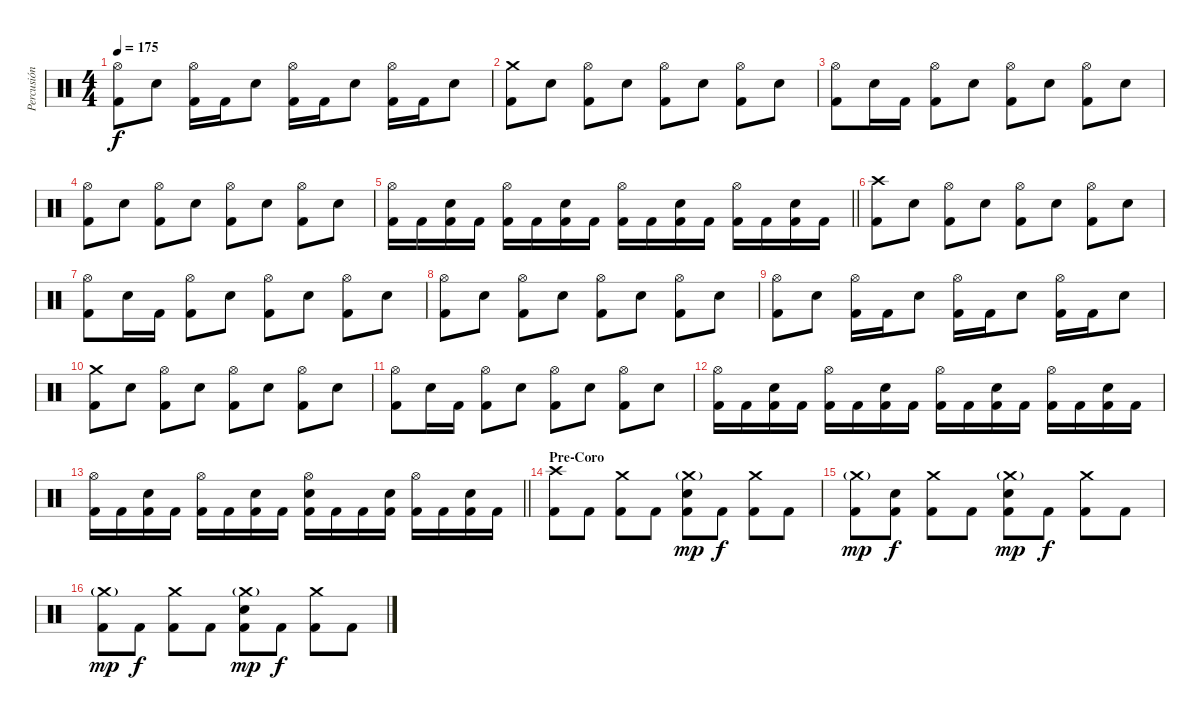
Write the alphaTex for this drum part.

\track ("Percusión" "Percusión") {instrument percussion}
\staff {score}
\articulation defaults
\ts (4 4)
\tempo 175
\clef neutral
\ks c
("Hi-Hat (open)" "Kick (hit) 2").8{dy f} "Snare (hit) 2".8 ("Hi-Hat (open)" "Kick (hit) 2").16 "Kick (hit) 2".16 "Snare (hit) 2".8 ("Hi-Hat (open)" "Kick (hit) 2").16 "Kick (hit) 2".16 "Snare (hit) 2".8 ("Hi-Hat (open)" "Kick (hit) 2").16 "Kick (hit) 2".16 "Snare (hit) 2".8 |
("Crash medium (hit)" "Kick (hit) 2").8 "Snare (hit) 2".8 ("Hi-Hat (open)" "Kick (hit) 2").8 "Snare (hit) 2".8 ("Hi-Hat (open)" "Kick (hit) 2").8 "Snare (hit) 2".8 ("Hi-Hat (open)" "Kick (hit) 2").8 "Snare (hit) 2".8 |
("Hi-Hat (open)" "Kick (hit) 2").8 "Snare (hit) 2".16 "Kick (hit) 2".16 ("Hi-Hat (open)" "Kick (hit) 2").8 "Snare (hit) 2".8 ("Hi-Hat (open)" "Kick (hit) 2").8 "Snare (hit) 2".8 ("Hi-Hat (open)" "Kick (hit) 2").8 "Snare (hit) 2".8 |
("Hi-Hat (open)" "Kick (hit) 2").8 "Snare (hit) 2".8 ("Hi-Hat (open)" "Kick (hit) 2").8 "Snare (hit) 2".8 ("Hi-Hat (open)" "Kick (hit) 2").8 "Snare (hit) 2".8 ("Hi-Hat (open)" "Kick (hit) 2").8 "Snare (hit) 2".8 |
\barLineRight lightlight
("Hi-Hat (open)" "Kick (hit) 2").16 "Kick (hit) 2".16 ("Snare (hit) 2" "Kick (hit) 2").16 "Kick (hit) 2".16 ("Hi-Hat (open)" "Kick (hit) 2").16 "Kick (hit) 2".16 ("Snare (hit) 2" "Kick (hit) 2").16 "Kick (hit) 2".16 ("Hi-Hat (open)" "Kick (hit) 2").16 "Kick (hit) 2".16 ("Snare (hit) 2" "Kick (hit) 2").16 "Kick (hit) 2".16 ("Hi-Hat (open)" "Kick (hit) 2").16 "Kick (hit) 2".16 ("Snare (hit) 2" "Kick (hit) 2").16 "Kick (hit) 2".16 |
\section ("" "")
("Crash high (hit)" "Kick (hit) 2").8 "Snare (hit) 2".8 ("Hi-Hat (open)" "Kick (hit) 2").8 "Snare (hit) 2".8 ("Hi-Hat (open)" "Kick (hit) 2").8 "Snare (hit) 2".8 ("Hi-Hat (open)" "Kick (hit) 2").8 "Snare (hit) 2".8 |
("Hi-Hat (open)" "Kick (hit) 2").8 "Snare (hit) 2".16 "Kick (hit) 2".16 ("Hi-Hat (open)" "Kick (hit) 2").8 "Snare (hit) 2".8 ("Hi-Hat (open)" "Kick (hit) 2").8 "Snare (hit) 2".8 ("Hi-Hat (open)" "Kick (hit) 2").8 "Snare (hit) 2".8 |
("Hi-Hat (open)" "Kick (hit) 2").8 "Snare (hit) 2".8 ("Hi-Hat (open)" "Kick (hit) 2").8 "Snare (hit) 2".8 ("Hi-Hat (open)" "Kick (hit) 2").8 "Snare (hit) 2".8 ("Hi-Hat (open)" "Kick (hit) 2").8 "Snare (hit) 2".8 |
("Hi-Hat (open)" "Kick (hit) 2").8 "Snare (hit) 2".8 ("Hi-Hat (open)" "Kick (hit) 2").16 "Kick (hit) 2".16 "Snare (hit) 2".8 ("Hi-Hat (open)" "Kick (hit) 2").16 "Kick (hit) 2".16 "Snare (hit) 2".8 ("Hi-Hat (open)" "Kick (hit) 2").16 "Kick (hit) 2".16 "Snare (hit) 2".8 |
("Crash medium (hit)" "Kick (hit) 2").8 "Snare (hit) 2".8 ("Hi-Hat (open)" "Kick (hit) 2").8 "Snare (hit) 2".8 ("Hi-Hat (open)" "Kick (hit) 2").8 "Snare (hit) 2".8 ("Hi-Hat (open)" "Kick (hit) 2").8 "Snare (hit) 2".8 |
("Hi-Hat (open)" "Kick (hit) 2").8 "Snare (hit) 2".16 "Kick (hit) 2".16 ("Hi-Hat (open)" "Kick (hit) 2").8 "Snare (hit) 2".8 ("Hi-Hat (open)" "Kick (hit) 2").8 "Snare (hit) 2".8 ("Hi-Hat (open)" "Kick (hit) 2").8 "Snare (hit) 2".8 |
("Hi-Hat (open)" "Kick (hit) 2").16 "Kick (hit) 2".16 ("Snare (hit) 2" "Kick (hit) 2").16 "Kick (hit) 2".16 ("Hi-Hat (open)" "Kick (hit) 2").16 "Kick (hit) 2".16 ("Snare (hit) 2" "Kick (hit) 2").16 "Kick (hit) 2".16 ("Hi-Hat (open)" "Kick (hit) 2").16 "Kick (hit) 2".16 ("Snare (hit) 2" "Kick (hit) 2").16 "Kick (hit) 2".16 ("Hi-Hat (open)" "Kick (hit) 2").16 "Kick (hit) 2".16 ("Snare (hit) 2" "Kick (hit) 2").16 "Kick (hit) 2".16 |
\barLineRight lightlight
("Hi-Hat (open)" "Kick (hit) 2").16 "Kick (hit) 2".16 ("Snare (hit) 2" "Kick (hit) 2").16 "Kick (hit) 2".16 ("Hi-Hat (open)" "Kick (hit) 2").16 "Kick (hit) 2".16 ("Snare (hit) 2" "Kick (hit) 2").16 "Kick (hit) 2".16 ("Hi-Hat (open)" "Snare (hit) 2" "Kick (hit) 2").16 "Kick (hit) 2".16 "Kick (hit) 2".16 ("Snare (hit) 2" "Kick (hit) 2").16 ("Hi-Hat (open)" "Kick (hit) 2").16 "Kick (hit) 2".16 ("Snare (hit) 2" "Kick (hit) 2").16 "Kick (hit) 2".16 |
\section ("" "Pre-Coro")
("Crash high (hit)" "Kick (hit) 2").8 "Kick (hit) 2".8 ("Crash medium (hit)" "Kick (hit) 2").8 "Kick (hit) 2".8 ("Crash medium (hit)"{g} "Snare (hit) 2" "Kick (hit) 2").8{dy mp} "Kick (hit) 2".8{dy f} ("Crash medium (hit)" "Kick (hit) 2").8 "Kick (hit) 2".8 |
("Crash medium (hit)"{g} "Kick (hit) 2").8{dy mp} ("Snare (hit) 2" "Kick (hit) 2").8{dy f} ("Crash medium (hit)" "Kick (hit) 2").8 "Kick (hit) 2".8 ("Crash medium (hit)"{g} "Snare (hit) 2" "Kick (hit) 2").8{dy mp} "Kick (hit) 2".8{dy f} ("Crash medium (hit)" "Kick (hit) 2").8 "Kick (hit) 2".8 |
("Crash medium (hit)"{g} "Kick (hit) 2").8{dy mp} "Kick (hit) 2".8{dy f} ("Crash medium (hit)" "Kick (hit) 2").8 "Kick (hit) 2".8 ("Crash medium (hit)"{g} "Snare (hit) 2" "Kick (hit) 2").8{dy mp} "Kick (hit) 2".8{dy f} ("Crash medium (hit)" "Kick (hit) 2").8 "Kick (hit) 2".8
